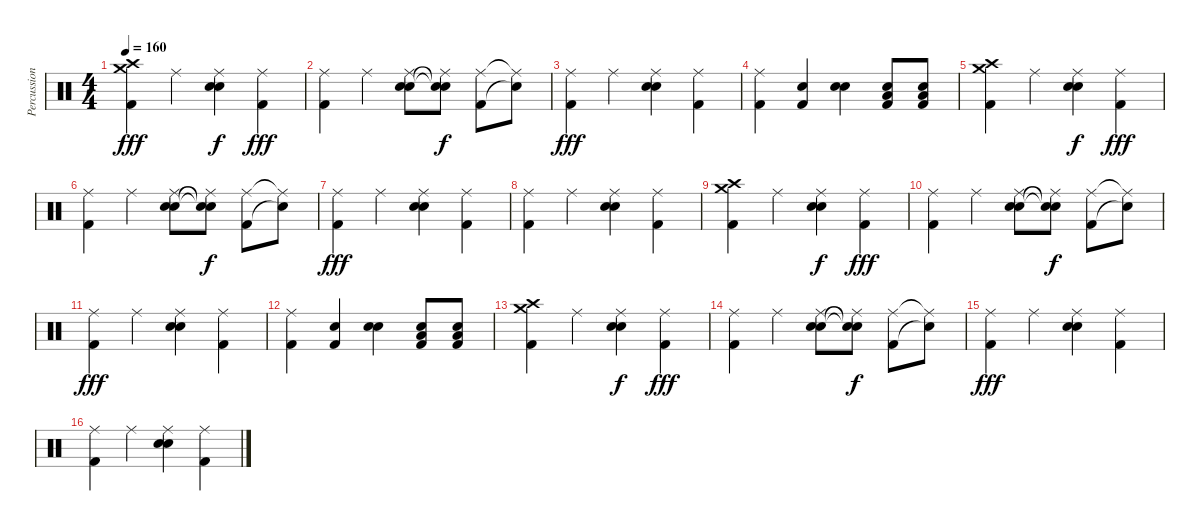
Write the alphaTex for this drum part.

\track ("Percussion" "Percussion") {instrument percussion}
\staff {score}
\articulation defaults
\ts (4 4)
\tempo 160
\clef neutral
\ks c
("Crash high (hit)" "Kick (hit) 2" "Crash medium (hit)").4{dy fff} "Ride (middle)".4 ("Ride (middle)" "Snare (hit) 2" "Electric Snare (hit)").4{dy f} ("Ride (middle)" "Kick (hit) 2").4{dy fff} |
("Kick (hit) 2" "Ride (middle)").4 "Ride (middle)".4 ("Snare (hit) 2" "Electric Snare (hit)" "Ride (middle)").8 ("Ride (middle)"{t} "Snare (hit)"{t} "Snare (hit)"{t}).8{dy f} ("Ride (middle)" "Kick (hit) 2").8 ("Ride (middle)"{t} "Snare (hit)"{t}).8 |
("Kick (hit) 2" "Ride (middle)").4{dy fff} "Ride (middle)".4 ("Snare (hit) 2" "Electric Snare (hit)" "Ride (middle)").4 ("Kick (hit) 2" "Ride (middle)").4 |
("Kick (hit) 2" "Ride (middle)").4 ("Kick (hit) 2" "Snare (hit) 2").4 ("Snare (hit) 2" "Snare (hit) 2").4 ("Kick (hit) 2" "Snare (hit) 2" "Low Floor Tom (hit)").8 ("Kick (hit) 2" "Snare (hit) 2" "Low Floor Tom (hit)").8 |
("Crash high (hit)" "Kick (hit) 2" "Crash medium (hit)").4 "Ride (middle)".4 ("Ride (middle)" "Snare (hit) 2" "Electric Snare (hit)").4{dy f} ("Ride (middle)" "Kick (hit) 2").4{dy fff} |
("Kick (hit) 2" "Ride (middle)").4 "Ride (middle)".4 ("Snare (hit) 2" "Electric Snare (hit)" "Ride (middle)").8 ("Ride (middle)"{t} "Snare (hit)"{t} "Snare (hit)"{t}).8{dy f} ("Ride (middle)" "Kick (hit) 2").8 ("Ride (middle)"{t} "Snare (hit)"{t}).8 |
("Kick (hit) 2" "Ride (middle)").4{dy fff} "Ride (middle)".4 ("Snare (hit) 2" "Electric Snare (hit)" "Ride (middle)").4 ("Kick (hit) 2" "Ride (middle)").4 |
("Kick (hit) 2" "Ride (middle)").4 "Ride (middle)".4 ("Snare (hit) 2" "Electric Snare (hit)" "Ride (middle)").4 ("Kick (hit) 2" "Ride (middle)").4 |
("Crash high (hit)" "Kick (hit) 2" "Crash medium (hit)").4 "Ride (middle)".4 ("Ride (middle)" "Snare (hit) 2" "Electric Snare (hit)").4{dy f} ("Ride (middle)" "Kick (hit) 2").4{dy fff} |
("Kick (hit) 2" "Ride (middle)").4 "Ride (middle)".4 ("Snare (hit) 2" "Electric Snare (hit)" "Ride (middle)").8 ("Ride (middle)"{t} "Snare (hit)"{t} "Snare (hit)"{t}).8{dy f} ("Ride (middle)" "Kick (hit) 2").8 ("Ride (middle)"{t} "Snare (hit)"{t}).8 |
("Kick (hit) 2" "Ride (middle)").4{dy fff} "Ride (middle)".4 ("Snare (hit) 2" "Electric Snare (hit)" "Ride (middle)").4 ("Kick (hit) 2" "Ride (middle)").4 |
("Kick (hit) 2" "Ride (middle)").4 ("Kick (hit) 2" "Snare (hit) 2").4 ("Snare (hit) 2" "Snare (hit) 2").4 ("Kick (hit) 2" "Snare (hit) 2" "Low Floor Tom (hit)").8 ("Kick (hit) 2" "Snare (hit) 2" "Low Floor Tom (hit)").8 |
("Crash high (hit)" "Kick (hit) 2" "Crash medium (hit)").4 "Ride (middle)".4 ("Ride (middle)" "Snare (hit) 2" "Electric Snare (hit)").4{dy f} ("Ride (middle)" "Kick (hit) 2").4{dy fff} |
("Kick (hit) 2" "Ride (middle)").4 "Ride (middle)".4 ("Snare (hit) 2" "Electric Snare (hit)" "Ride (middle)").8 ("Ride (middle)"{t} "Snare (hit)"{t} "Snare (hit)"{t}).8{dy f} ("Ride (middle)" "Kick (hit) 2").8 ("Ride (middle)"{t} "Snare (hit)"{t}).8 |
("Kick (hit) 2" "Ride (middle)").4{dy fff} "Ride (middle)".4 ("Snare (hit) 2" "Electric Snare (hit)" "Ride (middle)").4 ("Kick (hit) 2" "Ride (middle)").4 |
("Kick (hit) 2" "Ride (middle)").4 "Ride (middle)".4 ("Snare (hit) 2" "Electric Snare (hit)" "Ride (middle)").4 ("Kick (hit) 2" "Ride (middle)").4
